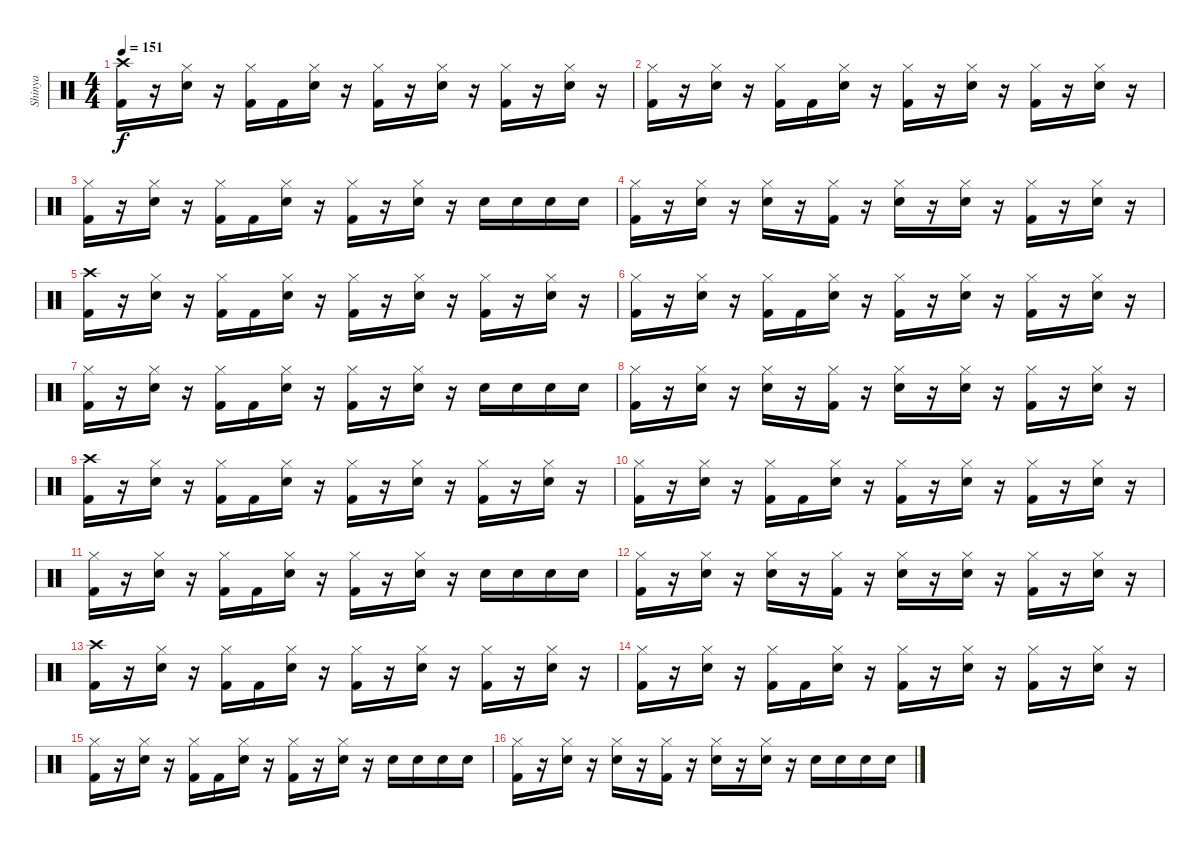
\track ("Shinya" "Shinya") {instrument percussion}
\staff {score}
\articulation defaults
\ts (4 4)
\tempo 151
\clef neutral
\ks c
("Kick (hit) 2" "Crash high (hit)").16{dy f} r.16 ("Snare (hit) 2" "Hi-Hat (closed)").16 r.16 ("Kick (hit) 2" "Hi-Hat (closed)").16 "Kick (hit) 2".16 ("Snare (hit) 2" "Hi-Hat (closed)").16 r.16 ("Kick (hit) 2" "Hi-Hat (closed)").16 r.16 ("Snare (hit) 2" "Hi-Hat (closed)").16 r.16 ("Kick (hit) 2" "Hi-Hat (closed)").16 r.16 ("Snare (hit) 2" "Hi-Hat (closed)").16 r.16 |
("Hi-Hat (closed)" "Kick (hit) 2").16 r.16 ("Snare (hit) 2" "Hi-Hat (closed)").16 r.16 ("Hi-Hat (closed)" "Kick (hit) 2").16 "Kick (hit) 2".16 ("Snare (hit) 2" "Hi-Hat (closed)").16 r.16 ("Hi-Hat (closed)" "Kick (hit) 2").16 r.16 ("Snare (hit) 2" "Hi-Hat (closed)").16 r.16 ("Hi-Hat (closed)" "Kick (hit) 2").16 r.16 ("Snare (hit) 2" "Hi-Hat (closed)").16 r.16 |
("Kick (hit) 2" "Hi-Hat (closed)").16 r.16 ("Snare (hit) 2" "Hi-Hat (closed)").16 r.16 ("Kick (hit) 2" "Hi-Hat (closed)").16 "Kick (hit) 2".16 ("Snare (hit) 2" "Hi-Hat (closed)").16 r.16 ("Kick (hit) 2" "Hi-Hat (closed)").16 r.16 ("Snare (hit) 2" "Hi-Hat (closed)").16 r.16 "Snare (hit) 2".16 "Snare (hit) 2".16 "Snare (hit) 2".16 "Snare (hit) 2".16 |
("Kick (hit) 2" "Hi-Hat (closed)").16 r.16 ("Snare (hit) 2" "Hi-Hat (closed)").16 r.16 ("Snare (hit) 2" "Hi-Hat (closed)").16 r.16 ("Kick (hit) 2" "Hi-Hat (closed)").16 r.16 ("Snare (hit) 2" "Hi-Hat (closed)").16 r.16 ("Snare (hit) 2" "Hi-Hat (closed)").16 r.16 ("Kick (hit) 2" "Hi-Hat (closed)").16 r.16 ("Snare (hit) 2" "Hi-Hat (closed)").16 r.16 |
("Kick (hit) 2" "Crash high (hit)").16 r.16 ("Snare (hit) 2" "Hi-Hat (closed)").16 r.16 ("Kick (hit) 2" "Hi-Hat (closed)").16 "Kick (hit) 2".16 ("Snare (hit) 2" "Hi-Hat (closed)").16 r.16 ("Kick (hit) 2" "Hi-Hat (closed)").16 r.16 ("Snare (hit) 2" "Hi-Hat (closed)").16 r.16 ("Kick (hit) 2" "Hi-Hat (closed)").16 r.16 ("Snare (hit) 2" "Hi-Hat (closed)").16 r.16 |
("Hi-Hat (closed)" "Kick (hit) 2").16 r.16 ("Snare (hit) 2" "Hi-Hat (closed)").16 r.16 ("Hi-Hat (closed)" "Kick (hit) 2").16 "Kick (hit) 2".16 ("Snare (hit) 2" "Hi-Hat (closed)").16 r.16 ("Hi-Hat (closed)" "Kick (hit) 2").16 r.16 ("Snare (hit) 2" "Hi-Hat (closed)").16 r.16 ("Hi-Hat (closed)" "Kick (hit) 2").16 r.16 ("Snare (hit) 2" "Hi-Hat (closed)").16 r.16 |
("Kick (hit) 2" "Hi-Hat (closed)").16 r.16 ("Snare (hit) 2" "Hi-Hat (closed)").16 r.16 ("Kick (hit) 2" "Hi-Hat (closed)").16 "Kick (hit) 2".16 ("Snare (hit) 2" "Hi-Hat (closed)").16 r.16 ("Kick (hit) 2" "Hi-Hat (closed)").16 r.16 ("Snare (hit) 2" "Hi-Hat (closed)").16 r.16 "Snare (hit) 2".16 "Snare (hit) 2".16 "Snare (hit) 2".16 "Snare (hit) 2".16 |
("Kick (hit) 2" "Hi-Hat (closed)").16 r.16 ("Snare (hit) 2" "Hi-Hat (closed)").16 r.16 ("Snare (hit) 2" "Hi-Hat (closed)").16 r.16 ("Kick (hit) 2" "Hi-Hat (closed)").16 r.16 ("Snare (hit) 2" "Hi-Hat (closed)").16 r.16 ("Snare (hit) 2" "Hi-Hat (closed)").16 r.16 ("Kick (hit) 2" "Hi-Hat (closed)").16 r.16 ("Snare (hit) 2" "Hi-Hat (closed)").16 r.16 |
("Kick (hit) 2" "Crash high (hit)").16 r.16 ("Snare (hit) 2" "Hi-Hat (closed)").16 r.16 ("Kick (hit) 2" "Hi-Hat (closed)").16 "Kick (hit) 2".16 ("Snare (hit) 2" "Hi-Hat (closed)").16 r.16 ("Kick (hit) 2" "Hi-Hat (closed)").16 r.16 ("Snare (hit) 2" "Hi-Hat (closed)").16 r.16 ("Kick (hit) 2" "Hi-Hat (closed)").16 r.16 ("Snare (hit) 2" "Hi-Hat (closed)").16 r.16 |
("Hi-Hat (closed)" "Kick (hit) 2").16 r.16 ("Snare (hit) 2" "Hi-Hat (closed)").16 r.16 ("Hi-Hat (closed)" "Kick (hit) 2").16 "Kick (hit) 2".16 ("Snare (hit) 2" "Hi-Hat (closed)").16 r.16 ("Hi-Hat (closed)" "Kick (hit) 2").16 r.16 ("Snare (hit) 2" "Hi-Hat (closed)").16 r.16 ("Hi-Hat (closed)" "Kick (hit) 2").16 r.16 ("Snare (hit) 2" "Hi-Hat (closed)").16 r.16 |
("Kick (hit) 2" "Hi-Hat (closed)").16 r.16 ("Snare (hit) 2" "Hi-Hat (closed)").16 r.16 ("Kick (hit) 2" "Hi-Hat (closed)").16 "Kick (hit) 2".16 ("Snare (hit) 2" "Hi-Hat (closed)").16 r.16 ("Kick (hit) 2" "Hi-Hat (closed)").16 r.16 ("Snare (hit) 2" "Hi-Hat (closed)").16 r.16 "Snare (hit) 2".16 "Snare (hit) 2".16 "Snare (hit) 2".16 "Snare (hit) 2".16 |
("Kick (hit) 2" "Hi-Hat (closed)").16 r.16 ("Snare (hit) 2" "Hi-Hat (closed)").16 r.16 ("Snare (hit) 2" "Hi-Hat (closed)").16 r.16 ("Kick (hit) 2" "Hi-Hat (closed)").16 r.16 ("Snare (hit) 2" "Hi-Hat (closed)").16 r.16 ("Snare (hit) 2" "Hi-Hat (closed)").16 r.16 ("Kick (hit) 2" "Hi-Hat (closed)").16 r.16 ("Snare (hit) 2" "Hi-Hat (closed)").16 r.16 |
("Kick (hit) 2" "Crash high (hit)").16 r.16 ("Snare (hit) 2" "Hi-Hat (closed)").16 r.16 ("Kick (hit) 2" "Hi-Hat (closed)").16 "Kick (hit) 2".16 ("Snare (hit) 2" "Hi-Hat (closed)").16 r.16 ("Kick (hit) 2" "Hi-Hat (closed)").16 r.16 ("Snare (hit) 2" "Hi-Hat (closed)").16 r.16 ("Kick (hit) 2" "Hi-Hat (closed)").16 r.16 ("Snare (hit) 2" "Hi-Hat (closed)").16 r.16 |
("Hi-Hat (closed)" "Kick (hit) 2").16 r.16 ("Snare (hit) 2" "Hi-Hat (closed)").16 r.16 ("Hi-Hat (closed)" "Kick (hit) 2").16 "Kick (hit) 2".16 ("Snare (hit) 2" "Hi-Hat (closed)").16 r.16 ("Hi-Hat (closed)" "Kick (hit) 2").16 r.16 ("Snare (hit) 2" "Hi-Hat (closed)").16 r.16 ("Hi-Hat (closed)" "Kick (hit) 2").16 r.16 ("Snare (hit) 2" "Hi-Hat (closed)").16 r.16 |
("Kick (hit) 2" "Hi-Hat (closed)").16 r.16 ("Snare (hit) 2" "Hi-Hat (closed)").16 r.16 ("Kick (hit) 2" "Hi-Hat (closed)").16 "Kick (hit) 2".16 ("Snare (hit) 2" "Hi-Hat (closed)").16 r.16 ("Kick (hit) 2" "Hi-Hat (closed)").16 r.16 ("Snare (hit) 2" "Hi-Hat (closed)").16 r.16 "Snare (hit) 2".16 "Snare (hit) 2".16 "Snare (hit) 2".16 "Snare (hit) 2".16 |
("Kick (hit) 2" "Hi-Hat (closed)").16 r.16 ("Snare (hit) 2" "Hi-Hat (closed)").16 r.16 ("Snare (hit) 2" "Hi-Hat (closed)").16 r.16 ("Kick (hit) 2" "Hi-Hat (closed)").16 r.16 ("Snare (hit) 2" "Hi-Hat (closed)").16 r.16 ("Snare (hit) 2" "Hi-Hat (closed)").16 r.16 "Snare (hit) 2".16 "Snare (hit) 2".16 "Snare (hit) 2".16 "Snare (hit) 2".16
